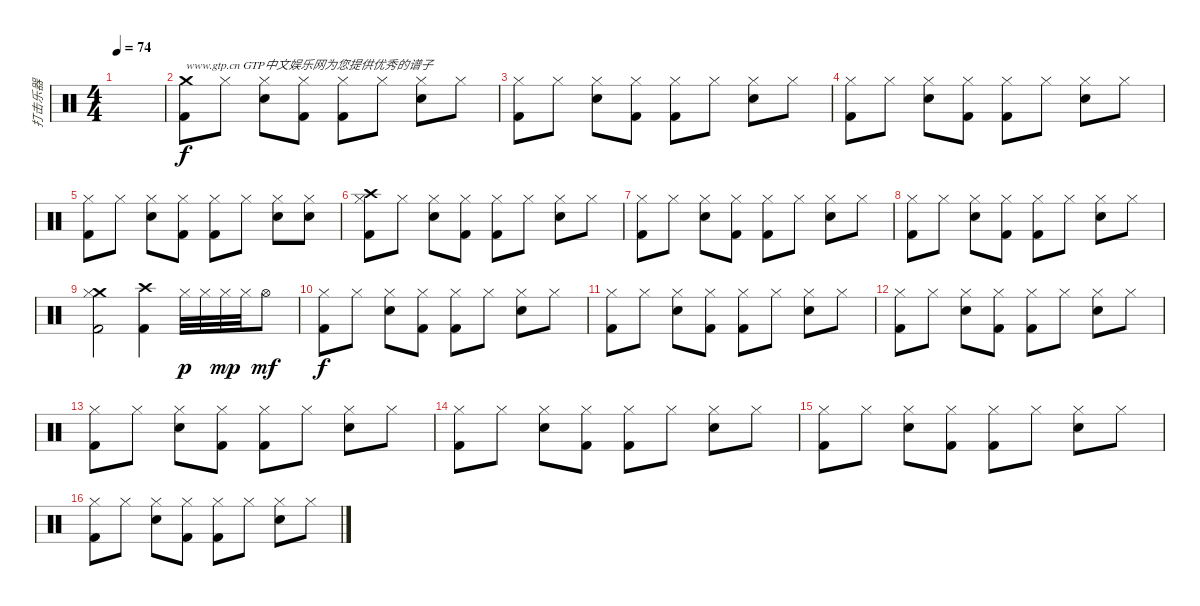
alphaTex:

\track ("打击乐器" "打击乐器") {instrument percussion}
\staff {score}
\articulation defaults
\ts (4 4)
\tempo 74
\clef neutral
\ks c
|
("Crash medium (hit)" "Kick (hit) 2").8{txt "www.gtp.cn GTP中文娱乐网为您提供优秀的谱子"} "Hi-Hat (closed)".8 ("Electric Snare (hit)" "Hi-Hat (closed)").8 ("Kick (hit) 2" "Hi-Hat (closed)").8 ("Kick (hit) 2" "Hi-Hat (closed)").8 "Hi-Hat (closed)".8 ("Electric Snare (hit)" "Hi-Hat (closed)").8 "Hi-Hat (closed)".8 |
("Hi-Hat (closed)" "Kick (hit) 2").8 "Hi-Hat (closed)".8 ("Electric Snare (hit)" "Hi-Hat (closed)").8 ("Kick (hit) 2" "Hi-Hat (closed)").8 ("Kick (hit) 2" "Hi-Hat (closed)").8 "Hi-Hat (closed)".8 ("Electric Snare (hit)" "Hi-Hat (closed)").8 "Hi-Hat (closed)".8 |
("Hi-Hat (closed)" "Kick (hit) 2").8 "Hi-Hat (closed)".8 ("Electric Snare (hit)" "Hi-Hat (closed)").8 ("Kick (hit) 2" "Hi-Hat (closed)").8 ("Kick (hit) 2" "Hi-Hat (closed)").8 "Hi-Hat (closed)".8 ("Electric Snare (hit)" "Hi-Hat (closed)").8 "Hi-Hat (closed)".8 |
("Hi-Hat (closed)" "Kick (hit) 2").8 "Hi-Hat (closed)".8 ("Electric Snare (hit)" "Hi-Hat (closed)").8 ("Kick (hit) 2" "Hi-Hat (closed)").8 ("Kick (hit) 2" "Hi-Hat (closed)").8 "Hi-Hat (closed)".8 ("Electric Snare (hit)" "Hi-Hat (closed)").8 ("Electric Snare (hit)" "Hi-Hat (closed)").8 |
("Crash high (hit)" "Hi-Hat (closed)" "Kick (hit) 2").8 "Hi-Hat (closed)".8 ("Electric Snare (hit)" "Hi-Hat (closed)").8 ("Kick (hit) 2" "Hi-Hat (closed)").8 ("Kick (hit) 2" "Hi-Hat (closed)").8 "Hi-Hat (closed)".8 ("Electric Snare (hit)" "Hi-Hat (closed)").8 "Hi-Hat (closed)".8 |
("Hi-Hat (closed)" "Kick (hit) 2").8 "Hi-Hat (closed)".8 ("Electric Snare (hit)" "Hi-Hat (closed)").8 ("Kick (hit) 2" "Hi-Hat (closed)").8 ("Kick (hit) 2" "Hi-Hat (closed)").8 "Hi-Hat (closed)".8 ("Electric Snare (hit)" "Hi-Hat (closed)").8 "Hi-Hat (closed)".8 |
("Hi-Hat (closed)" "Kick (hit) 2").8 "Hi-Hat (closed)".8 ("Electric Snare (hit)" "Hi-Hat (closed)").8 ("Kick (hit) 2" "Hi-Hat (closed)").8 ("Kick (hit) 2" "Hi-Hat (closed)").8 "Hi-Hat (closed)".8 ("Electric Snare (hit)" "Hi-Hat (closed)").8 "Hi-Hat (closed)".8 |
("Crash medium (hit)" "Hi-Hat (closed)" "Kick (hit) 2").2 ("Crash high (hit)" "Kick (hit) 2").4 "Hi-Hat (closed)".32{dy p} "Hi-Hat (closed)".32 "Hi-Hat (closed)".32{dy mp} "Hi-Hat (closed)".32 "Hi-Hat (open)".8{dy mf} |
("Hi-Hat (closed)" "Kick (hit) 2").8{dy f} "Hi-Hat (closed)".8 ("Electric Snare (hit)" "Hi-Hat (closed)").8 ("Kick (hit) 2" "Hi-Hat (closed)").8 ("Kick (hit) 2" "Hi-Hat (closed)").8 "Hi-Hat (closed)".8 ("Electric Snare (hit)" "Hi-Hat (closed)").8 "Hi-Hat (closed)".8 |
("Hi-Hat (closed)" "Kick (hit) 2").8 "Hi-Hat (closed)".8 ("Electric Snare (hit)" "Hi-Hat (closed)").8 ("Kick (hit) 2" "Hi-Hat (closed)").8 ("Kick (hit) 2" "Hi-Hat (closed)").8 "Hi-Hat (closed)".8 ("Electric Snare (hit)" "Hi-Hat (closed)").8 "Hi-Hat (closed)".8 |
("Hi-Hat (closed)" "Kick (hit) 2").8 "Hi-Hat (closed)".8 ("Electric Snare (hit)" "Hi-Hat (closed)").8 ("Kick (hit) 2" "Hi-Hat (closed)").8 ("Kick (hit) 2" "Hi-Hat (closed)").8 "Hi-Hat (closed)".8 ("Electric Snare (hit)" "Hi-Hat (closed)").8 "Hi-Hat (closed)".8 |
("Hi-Hat (closed)" "Kick (hit) 2").8 "Hi-Hat (closed)".8 ("Electric Snare (hit)" "Hi-Hat (closed)").8 ("Kick (hit) 2" "Hi-Hat (closed)").8 ("Kick (hit) 2" "Hi-Hat (closed)").8 "Hi-Hat (closed)".8 ("Electric Snare (hit)" "Hi-Hat (closed)").8 "Hi-Hat (closed)".8 |
("Hi-Hat (closed)" "Kick (hit) 2").8 "Hi-Hat (closed)".8 ("Electric Snare (hit)" "Hi-Hat (closed)").8 ("Kick (hit) 2" "Hi-Hat (closed)").8 ("Kick (hit) 2" "Hi-Hat (closed)").8 "Hi-Hat (closed)".8 ("Electric Snare (hit)" "Hi-Hat (closed)").8 "Hi-Hat (closed)".8 |
("Hi-Hat (closed)" "Kick (hit) 2").8 "Hi-Hat (closed)".8 ("Electric Snare (hit)" "Hi-Hat (closed)").8 ("Kick (hit) 2" "Hi-Hat (closed)").8 ("Kick (hit) 2" "Hi-Hat (closed)").8 "Hi-Hat (closed)".8 ("Electric Snare (hit)" "Hi-Hat (closed)").8 "Hi-Hat (closed)".8 |
("Hi-Hat (closed)" "Kick (hit) 2").8 "Hi-Hat (closed)".8 ("Electric Snare (hit)" "Hi-Hat (closed)").8 ("Kick (hit) 2" "Hi-Hat (closed)").8 ("Kick (hit) 2" "Hi-Hat (closed)").8 "Hi-Hat (closed)".8 ("Electric Snare (hit)" "Hi-Hat (closed)").8 "Hi-Hat (closed)".8
